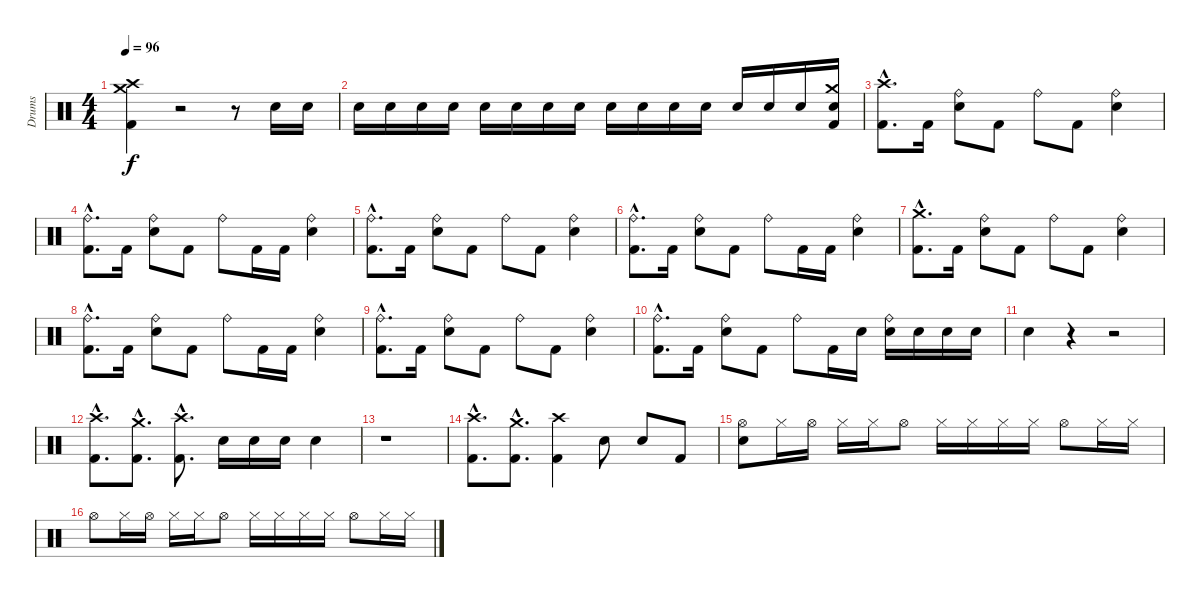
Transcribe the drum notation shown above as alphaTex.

\track ("Drums" "Drums") {instrument percussion}
\staff {score}
\articulation defaults
\ts (4 4)
\tempo 96
\clef neutral
\ks c
("Kick (hit) 2" "Crash high (hit)" "Crash medium (hit)").4{dy f} r.2{volume 0} r.8 "Snare (hit) 2".16{volume 16} "Snare (hit) 2".16 |
"Snare (hit) 2".16 "Snare (hit) 2".16 "Snare (hit) 2".16 "Snare (hit) 2".16 "Snare (hit) 2".16 "Snare (hit) 2".16 "Snare (hit) 2".16 "Snare (hit) 2".16 "Snare (hit) 2".16 "Snare (hit) 2".16 "Snare (hit) 2".16 "Snare (hit) 2".16 "Snare (hit) 2".16 "Snare (hit) 2".16 "Snare (hit) 2".16 ("Kick (hit) 2" "Snare (hit) 2" "Crash medium (hit)").16 |
("Kick (hit) 2"{hac} "Crash high (hit)"{hac}).8{d} "Kick (hit) 2".16 ("Snare (hit) 2" "Ride (bell)").8 "Kick (hit) 2".8 "Ride (bell)".8 "Kick (hit) 2".8 ("Snare (hit) 2" "Ride (bell)").4 |
("Kick (hit) 2"{hac} "Ride (bell)"{hac}).8{d} "Kick (hit) 2".16 ("Snare (hit) 2" "Ride (bell)").8 "Kick (hit) 2".8 "Ride (bell)".8 "Kick (hit) 2".16 "Kick (hit) 2".16 ("Snare (hit) 2" "Ride (bell)").4 |
("Kick (hit) 2"{hac} "Ride (bell)"{hac}).8{d} "Kick (hit) 2".16 ("Snare (hit) 2" "Ride (bell)").8 "Kick (hit) 2".8 "Ride (bell)".8 "Kick (hit) 2".8 ("Snare (hit) 2" "Ride (bell)").4 |
("Kick (hit) 2"{hac} "Ride (bell)"{hac}).8{d} "Kick (hit) 2".16 ("Snare (hit) 2" "Ride (bell)").8 "Kick (hit) 2".8 "Ride (bell)".8 "Kick (hit) 2".16 "Kick (hit) 2".16 ("Snare (hit) 2" "Ride (bell)").4 |
("Kick (hit) 2"{hac} "Crash medium (hit)"{hac}).8{d} "Kick (hit) 2".16 ("Snare (hit) 2" "Ride (bell)").8 "Kick (hit) 2".8 "Ride (bell)".8 "Kick (hit) 2".8 ("Snare (hit) 2" "Ride (bell)").4 |
("Kick (hit) 2"{hac} "Ride (bell)"{hac}).8{d} "Kick (hit) 2".16 ("Snare (hit) 2" "Ride (bell)").8 "Kick (hit) 2".8 "Ride (bell)".8 "Kick (hit) 2".16 "Kick (hit) 2".16 ("Snare (hit) 2" "Ride (bell)").4 |
("Kick (hit) 2"{hac} "Ride (bell)"{hac}).8{d} "Kick (hit) 2".16 ("Snare (hit) 2" "Ride (bell)").8 "Kick (hit) 2".8 "Ride (bell)".8 "Kick (hit) 2".8 ("Snare (hit) 2" "Ride (bell)").4 |
("Kick (hit) 2"{hac} "Ride (bell)"{hac}).8{d} "Kick (hit) 2".16 ("Snare (hit) 2" "Ride (bell)").8 "Kick (hit) 2".8 "Ride (bell)".8 "Kick (hit) 2".16 "Snare (hit) 2".16 ("Snare (hit) 2" "Ride (bell)").16 "Snare (hit) 2".16 "Snare (hit) 2".16 "Snare (hit) 2".16 |
"Snare (hit) 2".4 r.4 r.2 |
("Kick (hit) 2"{hac} "Crash high (hit)"{hac}).8{d} ("Kick (hit) 2"{hac} "Crash medium (hit)"{hac}).8{d} ("Kick (hit) 2"{hac} "Crash high (hit)"{hac}).8{d} "Snare (hit) 2".16 "Snare (hit) 2".16 "Snare (hit) 2".16 "Snare (hit) 2".4 |
r.1 |
("Kick (hit) 2"{hac} "Crash high (hit)"{hac}).8{d} ("Kick (hit) 2"{hac} "Crash medium (hit)"{hac}).8{d} ("Kick (hit) 2" "Crash high (hit)").4 "Snare (hit) 2".8 "Snare (hit) 2".8 "Kick (hit) 2".8 |
("Snare (hit) 2" "Hi-Hat (open)").8 "Hi-Hat (closed)".16 "Hi-Hat (open)".16 "Hi-Hat (closed)".16 "Hi-Hat (closed)".16 "Hi-Hat (open)".8 "Hi-Hat (closed)".16 "Hi-Hat (closed)".16 "Hi-Hat (closed)".16 "Hi-Hat (closed)".16 "Hi-Hat (open)".8 "Hi-Hat (closed)".16 "Hi-Hat (closed)".16 |
"Hi-Hat (open)".8 "Hi-Hat (closed)".16 "Hi-Hat (open)".16 "Hi-Hat (closed)".16 "Hi-Hat (closed)".16 "Hi-Hat (open)".8 "Hi-Hat (closed)".16 "Hi-Hat (closed)".16 "Hi-Hat (closed)".16 "Hi-Hat (closed)".16 "Hi-Hat (open)".8 "Hi-Hat (closed)".16 "Hi-Hat (closed)".16
